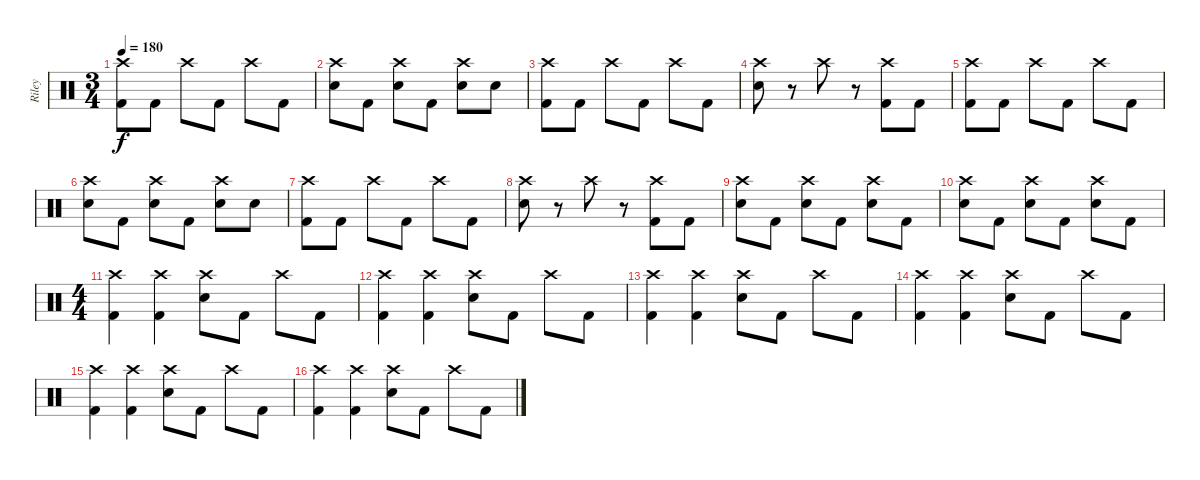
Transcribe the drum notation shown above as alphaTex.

\track ("Riley" "Riley") {instrument percussion}
\staff {score}
\articulation defaults
\ts (3 4)
\tempo 180
\clef neutral
\ks c
("Crash high (hit)" "Kick (hit) 2").8{dy f} "Kick (hit) 2".8 "Crash high (hit)".8 "Kick (hit) 2".8 "Crash high (hit)".8 "Kick (hit) 2".8 |
("Crash high (hit)" "Electric Snare (hit)").8 "Kick (hit) 2".8 ("Crash high (hit)" "Electric Snare (hit)").8 "Kick (hit) 2".8 ("Crash high (hit)" "Electric Snare (hit)").8 "Electric Snare (hit)".8 |
("Crash high (hit)" "Kick (hit) 2").8 "Kick (hit) 2".8 "Crash high (hit)".8 "Kick (hit) 2".8 "Crash high (hit)".8 "Kick (hit) 2".8 |
("Crash high (hit)" "Electric Snare (hit)").8 r.8 "Crash high (hit)".8 r.8 ("Crash high (hit)" "Kick (hit) 2").8 "Kick (hit) 2".8 |
("Crash high (hit)" "Kick (hit) 2").8 "Kick (hit) 2".8 "Crash high (hit)".8 "Kick (hit) 2".8 "Crash high (hit)".8 "Kick (hit) 2".8 |
("Crash high (hit)" "Electric Snare (hit)").8 "Kick (hit) 2".8 ("Crash high (hit)" "Electric Snare (hit)").8 "Kick (hit) 2".8 ("Crash high (hit)" "Electric Snare (hit)").8 "Electric Snare (hit)".8 |
("Crash high (hit)" "Kick (hit) 2").8 "Kick (hit) 2".8 "Crash high (hit)".8 "Kick (hit) 2".8 "Crash high (hit)".8 "Kick (hit) 2".8 |
("Crash high (hit)" "Electric Snare (hit)").8 r.8 "Crash high (hit)".8 r.8 ("Crash high (hit)" "Kick (hit) 2").8 "Kick (hit) 2".8 |
("Crash high (hit)" "Electric Snare (hit)").8 "Kick (hit) 2".8 ("Crash high (hit)" "Electric Snare (hit)").8 "Kick (hit) 2".8 ("Crash high (hit)" "Electric Snare (hit)").8 "Kick (hit) 2".8 |
("Crash high (hit)" "Electric Snare (hit)").8 "Kick (hit) 2".8 ("Crash high (hit)" "Electric Snare (hit)").8 "Kick (hit) 2".8 ("Crash high (hit)" "Electric Snare (hit)").8 "Kick (hit) 2".8 |
\ts (4 4)
("Crash high (hit)" "Kick (hit) 2").4 ("Crash high (hit)" "Kick (hit) 2").4 ("Crash high (hit)" "Electric Snare (hit)").8 "Kick (hit) 2".8 "Crash high (hit)".8 "Kick (hit) 2".8 |
("Crash high (hit)" "Kick (hit) 2").4 ("Crash high (hit)" "Kick (hit) 2").4 ("Crash high (hit)" "Electric Snare (hit)").8 "Kick (hit) 2".8 "Crash high (hit)".8 "Kick (hit) 2".8 |
("Crash high (hit)" "Kick (hit) 2").4 ("Crash high (hit)" "Kick (hit) 2").4 ("Crash high (hit)" "Electric Snare (hit)").8 "Kick (hit) 2".8 "Crash high (hit)".8 "Kick (hit) 2".8 |
("Crash high (hit)" "Kick (hit) 2").4 ("Crash high (hit)" "Kick (hit) 2").4 ("Crash high (hit)" "Electric Snare (hit)").8 "Kick (hit) 2".8 "Crash high (hit)".8 "Kick (hit) 2".8 |
("Crash high (hit)" "Kick (hit) 2").4 ("Crash high (hit)" "Kick (hit) 2").4 ("Crash high (hit)" "Electric Snare (hit)").8 "Kick (hit) 2".8 "Crash high (hit)".8 "Kick (hit) 2".8 |
("Crash high (hit)" "Kick (hit) 2").4 ("Crash high (hit)" "Kick (hit) 2").4 ("Crash high (hit)" "Electric Snare (hit)").8 "Kick (hit) 2".8 "Crash high (hit)".8 "Kick (hit) 2".8
